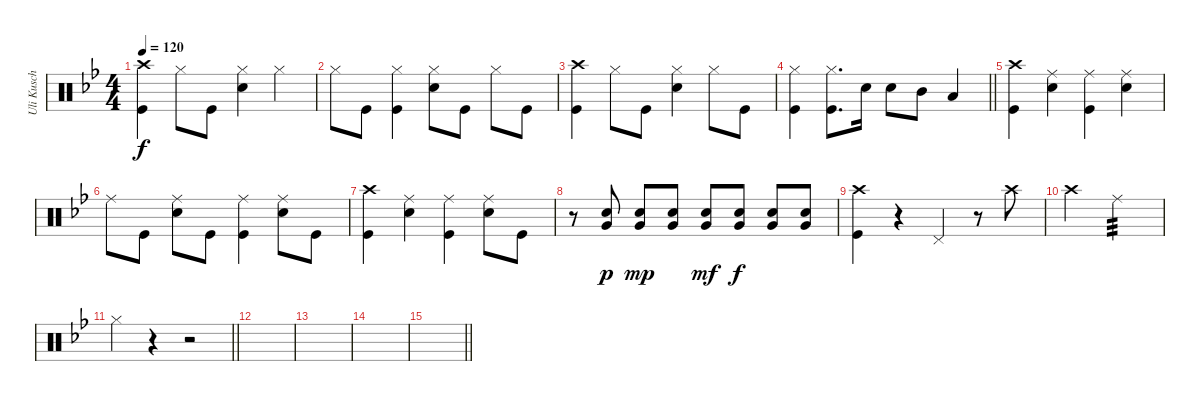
\track ("Uli Kusch" "Uli Kusch") {instrument percussion}
\staff {score}
\articulation defaults
\ts (4 4)
\tempo 120
\clef neutral
\ks gminor
("Crash high (hit)" "Kick (hit)").4{dy f} "Hi-Hat (closed)".8 "Kick (hit)".8 ("Hi-Hat (closed)" "Snare (hit) 2").4 "Hi-Hat (closed)".4 |
"Hi-Hat (closed)".8 "Kick (hit)".8 ("Hi-Hat (closed)" "Kick (hit)").4 ("Hi-Hat (closed)" "Snare (hit) 2").8 "Kick (hit)".8 "Hi-Hat (closed)".8 "Kick (hit)".8 |
("Crash high (hit)" "Kick (hit)").4 "Hi-Hat (closed)".8 "Kick (hit)".8 ("Hi-Hat (closed)" "Snare (hit) 2").4 "Hi-Hat (closed)".8 "Kick (hit)".8 |
\barLineRight lightlight
("Hi-Hat (closed)" "Kick (hit)").4 ("Hi-Hat (closed)" "Kick (hit)").8{d} "Snare (hit) 2".16 "Snare (hit) 2".8 "Mid Tom (hit)".8 "Low Tom (hit)".4 |
("Crash high (hit)" "Kick (hit)").4 ("Ride (middle)" "Snare (hit) 2").4 ("Ride (middle)" "Kick (hit)").4 ("Ride (middle)" "Snare (hit) 2").4 |
"Ride (middle)".8 "Kick (hit)".8 ("Ride (middle)" "Snare (hit) 2").8 "Kick (hit)".8 ("Ride (middle)" "Kick (hit)").4 ("Ride (middle)" "Snare (hit) 2").8 "Kick (hit)".8 |
("Crash high (hit)" "Kick (hit)").4 ("Ride (middle)" "Snare (hit) 2").4 ("Ride (middle)" "Kick (hit)").4 ("Ride (middle)" "Snare (hit) 2").8 "Kick (hit)".8 |
r.8 ("Snare (hit) 2" "Very Low Tom (hit)").8{dy p} ("Snare (hit) 2" "Very Low Tom (hit)").8{dy mp} ("Snare (hit) 2" "Very Low Tom (hit)").8 ("Snare (hit) 2" "Very Low Tom (hit)").8{dy mf} ("Snare (hit) 2" "Very Low Tom (hit)").8{dy f} ("Snare (hit) 2" "Very Low Tom (hit)").8 ("Snare (hit) 2" "Very Low Tom (hit)").8 |
("Crash high (hit)" "Kick (hit)").4 r.4 "Pedal Hi-Hat (hit)".4 r.8 "Crash high (hit)".8 |
"Crash high (hit)".2 "Ride (middle)".2{tp 3} |
\barLineRight lightlight "Hi-Hat (closed)".4
r.4 r.2 |
|
|
|
\barLineRight lightlight
